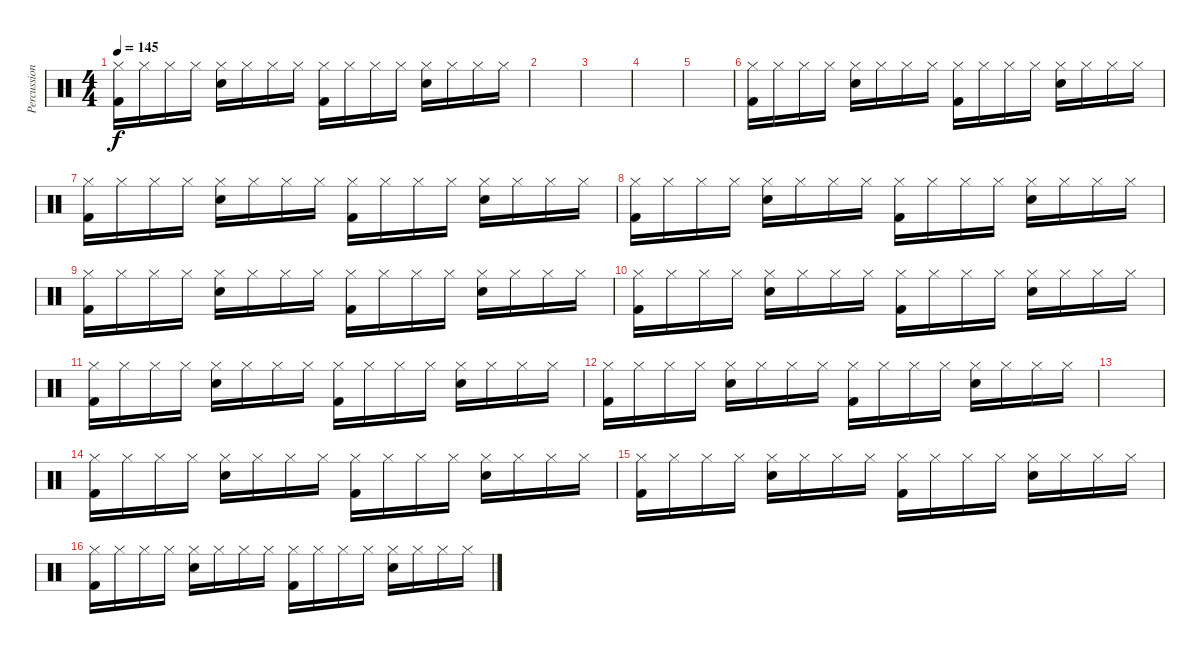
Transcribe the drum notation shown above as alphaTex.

\track ("Percussion" "Percussion") {instrument percussion}
\staff {score}
\articulation defaults
\ts (4 4)
\tempo 145
\clef neutral
\ks c
("Hi-Hat (closed)" "Kick (hit) 2").16{dy f} "Hi-Hat (closed)".16 "Hi-Hat (closed)".16 "Hi-Hat (closed)".16 ("Hi-Hat (closed)" "Electric Snare (hit)").16 "Hi-Hat (closed)".16 "Hi-Hat (closed)".16 "Hi-Hat (closed)".16 ("Hi-Hat (closed)" "Kick (hit) 2").16 "Hi-Hat (closed)".16 "Hi-Hat (closed)".16 "Hi-Hat (closed)".16 ("Hi-Hat (closed)" "Electric Snare (hit)").16 "Hi-Hat (closed)".16 "Hi-Hat (closed)".16 "Hi-Hat (closed)".16 |
|
|
|
|
("Hi-Hat (closed)" "Kick (hit) 2").16 "Hi-Hat (closed)".16 "Hi-Hat (closed)".16 "Hi-Hat (closed)".16 ("Hi-Hat (closed)" "Electric Snare (hit)").16 "Hi-Hat (closed)".16 "Hi-Hat (closed)".16 "Hi-Hat (closed)".16 ("Hi-Hat (closed)" "Kick (hit) 2").16 "Hi-Hat (closed)".16 "Hi-Hat (closed)".16 "Hi-Hat (closed)".16 ("Hi-Hat (closed)" "Electric Snare (hit)").16 "Hi-Hat (closed)".16 "Hi-Hat (closed)".16 "Hi-Hat (closed)".16 |
("Hi-Hat (closed)" "Kick (hit) 2").16 "Hi-Hat (closed)".16 "Hi-Hat (closed)".16 "Hi-Hat (closed)".16 ("Hi-Hat (closed)" "Electric Snare (hit)").16 "Hi-Hat (closed)".16 "Hi-Hat (closed)".16 "Hi-Hat (closed)".16 ("Hi-Hat (closed)" "Kick (hit) 2").16 "Hi-Hat (closed)".16 "Hi-Hat (closed)".16 "Hi-Hat (closed)".16 ("Hi-Hat (closed)" "Electric Snare (hit)").16 "Hi-Hat (closed)".16 "Hi-Hat (closed)".16 "Hi-Hat (closed)".16 |
("Hi-Hat (closed)" "Kick (hit) 2").16 "Hi-Hat (closed)".16 "Hi-Hat (closed)".16 "Hi-Hat (closed)".16 ("Hi-Hat (closed)" "Electric Snare (hit)").16 "Hi-Hat (closed)".16 "Hi-Hat (closed)".16 "Hi-Hat (closed)".16 ("Hi-Hat (closed)" "Kick (hit) 2").16 "Hi-Hat (closed)".16 "Hi-Hat (closed)".16 "Hi-Hat (closed)".16 ("Hi-Hat (closed)" "Electric Snare (hit)").16 "Hi-Hat (closed)".16 "Hi-Hat (closed)".16 "Hi-Hat (closed)".16 |
("Hi-Hat (closed)" "Kick (hit) 2").16 "Hi-Hat (closed)".16 "Hi-Hat (closed)".16 "Hi-Hat (closed)".16 ("Hi-Hat (closed)" "Electric Snare (hit)").16 "Hi-Hat (closed)".16 "Hi-Hat (closed)".16 "Hi-Hat (closed)".16 ("Hi-Hat (closed)" "Kick (hit) 2").16 "Hi-Hat (closed)".16 "Hi-Hat (closed)".16 "Hi-Hat (closed)".16 ("Hi-Hat (closed)" "Electric Snare (hit)").16 "Hi-Hat (closed)".16 "Hi-Hat (closed)".16 "Hi-Hat (closed)".16 |
("Hi-Hat (closed)" "Kick (hit) 2").16 "Hi-Hat (closed)".16 "Hi-Hat (closed)".16 "Hi-Hat (closed)".16 ("Hi-Hat (closed)" "Electric Snare (hit)").16 "Hi-Hat (closed)".16 "Hi-Hat (closed)".16 "Hi-Hat (closed)".16 ("Hi-Hat (closed)" "Kick (hit) 2").16 "Hi-Hat (closed)".16 "Hi-Hat (closed)".16 "Hi-Hat (closed)".16 ("Hi-Hat (closed)" "Electric Snare (hit)").16 "Hi-Hat (closed)".16 "Hi-Hat (closed)".16 "Hi-Hat (closed)".16 |
("Hi-Hat (closed)" "Kick (hit) 2").16 "Hi-Hat (closed)".16 "Hi-Hat (closed)".16 "Hi-Hat (closed)".16 ("Hi-Hat (closed)" "Electric Snare (hit)").16 "Hi-Hat (closed)".16 "Hi-Hat (closed)".16 "Hi-Hat (closed)".16 ("Hi-Hat (closed)" "Kick (hit) 2").16 "Hi-Hat (closed)".16 "Hi-Hat (closed)".16 "Hi-Hat (closed)".16 ("Hi-Hat (closed)" "Electric Snare (hit)").16 "Hi-Hat (closed)".16 "Hi-Hat (closed)".16 "Hi-Hat (closed)".16 |
("Hi-Hat (closed)" "Kick (hit) 2").16 "Hi-Hat (closed)".16 "Hi-Hat (closed)".16 "Hi-Hat (closed)".16 ("Hi-Hat (closed)" "Electric Snare (hit)").16 "Hi-Hat (closed)".16 "Hi-Hat (closed)".16 "Hi-Hat (closed)".16 ("Hi-Hat (closed)" "Kick (hit) 2").16 "Hi-Hat (closed)".16 "Hi-Hat (closed)".16 "Hi-Hat (closed)".16 ("Hi-Hat (closed)" "Electric Snare (hit)").16 "Hi-Hat (closed)".16 "Hi-Hat (closed)".16 "Hi-Hat (closed)".16 |
|
("Hi-Hat (closed)" "Kick (hit) 2").16 "Hi-Hat (closed)".16 "Hi-Hat (closed)".16 "Hi-Hat (closed)".16 ("Hi-Hat (closed)" "Electric Snare (hit)").16 "Hi-Hat (closed)".16 "Hi-Hat (closed)".16 "Hi-Hat (closed)".16 ("Hi-Hat (closed)" "Kick (hit) 2").16 "Hi-Hat (closed)".16 "Hi-Hat (closed)".16 "Hi-Hat (closed)".16 ("Hi-Hat (closed)" "Electric Snare (hit)").16 "Hi-Hat (closed)".16 "Hi-Hat (closed)".16 "Hi-Hat (closed)".16 |
("Hi-Hat (closed)" "Kick (hit) 2").16 "Hi-Hat (closed)".16 "Hi-Hat (closed)".16 "Hi-Hat (closed)".16 ("Hi-Hat (closed)" "Electric Snare (hit)").16 "Hi-Hat (closed)".16 "Hi-Hat (closed)".16 "Hi-Hat (closed)".16 ("Hi-Hat (closed)" "Kick (hit) 2").16 "Hi-Hat (closed)".16 "Hi-Hat (closed)".16 "Hi-Hat (closed)".16 ("Hi-Hat (closed)" "Electric Snare (hit)").16 "Hi-Hat (closed)".16 "Hi-Hat (closed)".16 "Hi-Hat (closed)".16 |
("Hi-Hat (closed)" "Kick (hit) 2").16 "Hi-Hat (closed)".16 "Hi-Hat (closed)".16 "Hi-Hat (closed)".16 ("Hi-Hat (closed)" "Electric Snare (hit)").16 "Hi-Hat (closed)".16 "Hi-Hat (closed)".16 "Hi-Hat (closed)".16 ("Hi-Hat (closed)" "Kick (hit) 2").16 "Hi-Hat (closed)".16 "Hi-Hat (closed)".16 "Hi-Hat (closed)".16 ("Hi-Hat (closed)" "Electric Snare (hit)").16 "Hi-Hat (closed)".16 "Hi-Hat (closed)".16 "Hi-Hat (closed)".16
